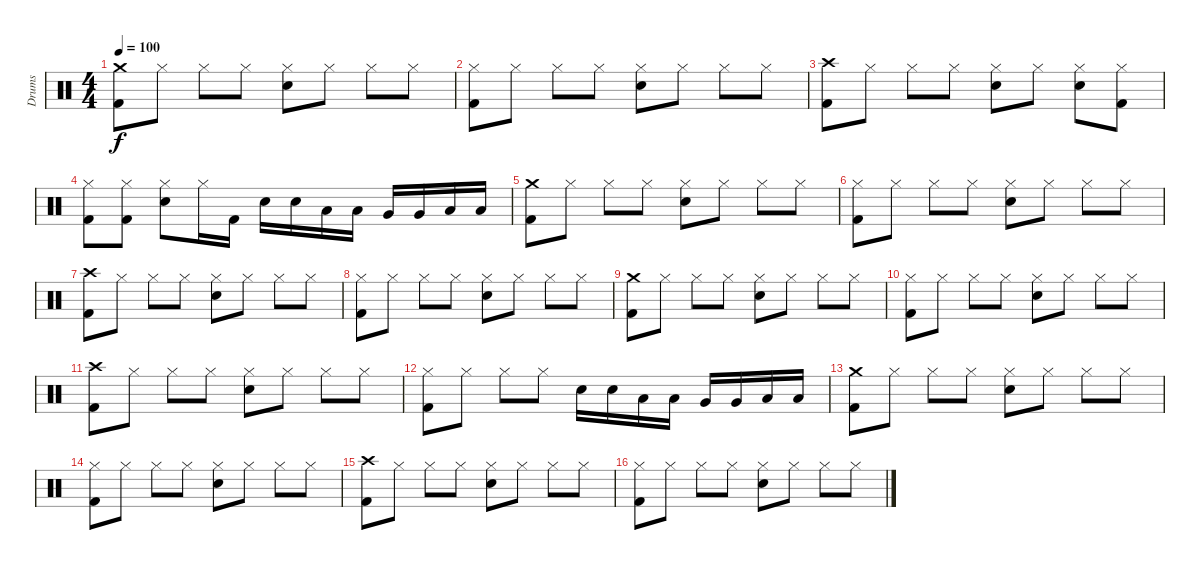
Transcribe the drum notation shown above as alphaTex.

\track ("Drums" "Drums") {instrument percussion}
\staff {score}
\articulation defaults
\ts (4 4)
\tempo 100
\clef neutral
\ks c
("Crash medium (hit)" "Kick (hit) 2").8{dy f} "Hi-Hat (closed)".8 "Hi-Hat (closed)".8 "Hi-Hat (closed)".8 ("Hi-Hat (closed)" "Electric Snare (hit)").8 "Hi-Hat (closed)".8 "Hi-Hat (closed)".8 "Hi-Hat (closed)".8 |
("Hi-Hat (closed)" "Kick (hit) 2").8 "Hi-Hat (closed)".8 "Hi-Hat (closed)".8 "Hi-Hat (closed)".8 ("Hi-Hat (closed)" "Electric Snare (hit)").8 "Hi-Hat (closed)".8 "Hi-Hat (closed)".8 "Hi-Hat (closed)".8 |
("Crash high (hit)" "Kick (hit) 2").8 "Hi-Hat (closed)".8 "Hi-Hat (closed)".8 "Hi-Hat (closed)".8 ("Hi-Hat (closed)" "Electric Snare (hit)").8 "Hi-Hat (closed)".8 ("Hi-Hat (closed)" "Electric Snare (hit)").8 ("Hi-Hat (closed)" "Kick (hit) 2").8 |
("Hi-Hat (closed)" "Kick (hit) 2").8 ("Hi-Hat (closed)" "Kick (hit) 2").8 ("Hi-Hat (closed)" "Electric Snare (hit)").8 "Hi-Hat (closed)".16 "Kick (hit) 2".16 "Electric Snare (hit)".16 "Electric Snare (hit)".16 "Low Tom (hit)".16 "Low Tom (hit)".16 "Very Low Tom (hit)".16 "Very Low Tom (hit)".16 "Low Floor Tom (hit)".16 "Low Floor Tom (hit)".16 |
("Crash medium (hit)" "Kick (hit) 2").8 "Hi-Hat (closed)".8 "Hi-Hat (closed)".8 "Hi-Hat (closed)".8 ("Hi-Hat (closed)" "Electric Snare (hit)").8 "Hi-Hat (closed)".8 "Hi-Hat (closed)".8 "Hi-Hat (closed)".8 |
("Hi-Hat (closed)" "Kick (hit) 2").8 "Hi-Hat (closed)".8 "Hi-Hat (closed)".8 "Hi-Hat (closed)".8 ("Hi-Hat (closed)" "Electric Snare (hit)").8 "Hi-Hat (closed)".8 "Hi-Hat (closed)".8 "Hi-Hat (closed)".8 |
("Crash high (hit)" "Kick (hit) 2").8 "Hi-Hat (closed)".8 "Hi-Hat (closed)".8 "Hi-Hat (closed)".8 ("Hi-Hat (closed)" "Electric Snare (hit)").8 "Hi-Hat (closed)".8 "Hi-Hat (closed)".8 "Hi-Hat (closed)".8 |
("Hi-Hat (closed)" "Kick (hit) 2").8 "Hi-Hat (closed)".8 "Hi-Hat (closed)".8 "Hi-Hat (closed)".8 ("Hi-Hat (closed)" "Electric Snare (hit)").8 "Hi-Hat (closed)".8 "Hi-Hat (closed)".8 "Hi-Hat (closed)".8 |
("Crash medium (hit)" "Kick (hit) 2").8 "Hi-Hat (closed)".8 "Hi-Hat (closed)".8 "Hi-Hat (closed)".8 ("Hi-Hat (closed)" "Electric Snare (hit)").8 "Hi-Hat (closed)".8 "Hi-Hat (closed)".8 "Hi-Hat (closed)".8 |
("Hi-Hat (closed)" "Kick (hit) 2").8 "Hi-Hat (closed)".8 "Hi-Hat (closed)".8 "Hi-Hat (closed)".8 ("Hi-Hat (closed)" "Electric Snare (hit)").8 "Hi-Hat (closed)".8 "Hi-Hat (closed)".8 "Hi-Hat (closed)".8 |
("Crash high (hit)" "Kick (hit) 2").8 "Hi-Hat (closed)".8 "Hi-Hat (closed)".8 "Hi-Hat (closed)".8 ("Hi-Hat (closed)" "Electric Snare (hit)").8 "Hi-Hat (closed)".8 "Hi-Hat (closed)".8 "Hi-Hat (closed)".8 |
("Hi-Hat (closed)" "Kick (hit) 2").8 "Hi-Hat (closed)".8 "Hi-Hat (closed)".8 "Hi-Hat (closed)".8 "Electric Snare (hit)".16 "Electric Snare (hit)".16 "Low Tom (hit)".16 "Low Tom (hit)".16 "Very Low Tom (hit)".16 "Very Low Tom (hit)".16 "Low Floor Tom (hit)".16 "Low Floor Tom (hit)".16 |
("Crash medium (hit)" "Kick (hit) 2").8 "Hi-Hat (closed)".8 "Hi-Hat (closed)".8 "Hi-Hat (closed)".8 ("Hi-Hat (closed)" "Electric Snare (hit)").8 "Hi-Hat (closed)".8 "Hi-Hat (closed)".8 "Hi-Hat (closed)".8 |
("Hi-Hat (closed)" "Kick (hit) 2").8 "Hi-Hat (closed)".8 "Hi-Hat (closed)".8 "Hi-Hat (closed)".8 ("Hi-Hat (closed)" "Electric Snare (hit)").8 "Hi-Hat (closed)".8 "Hi-Hat (closed)".8 "Hi-Hat (closed)".8 |
("Crash high (hit)" "Kick (hit) 2").8 "Hi-Hat (closed)".8 "Hi-Hat (closed)".8 "Hi-Hat (closed)".8 ("Hi-Hat (closed)" "Electric Snare (hit)").8 "Hi-Hat (closed)".8 "Hi-Hat (closed)".8 "Hi-Hat (closed)".8 |
("Hi-Hat (closed)" "Kick (hit) 2").8 "Hi-Hat (closed)".8 "Hi-Hat (closed)".8 "Hi-Hat (closed)".8 ("Hi-Hat (closed)" "Electric Snare (hit)").8 "Hi-Hat (closed)".8 "Hi-Hat (closed)".8 "Hi-Hat (closed)".8
